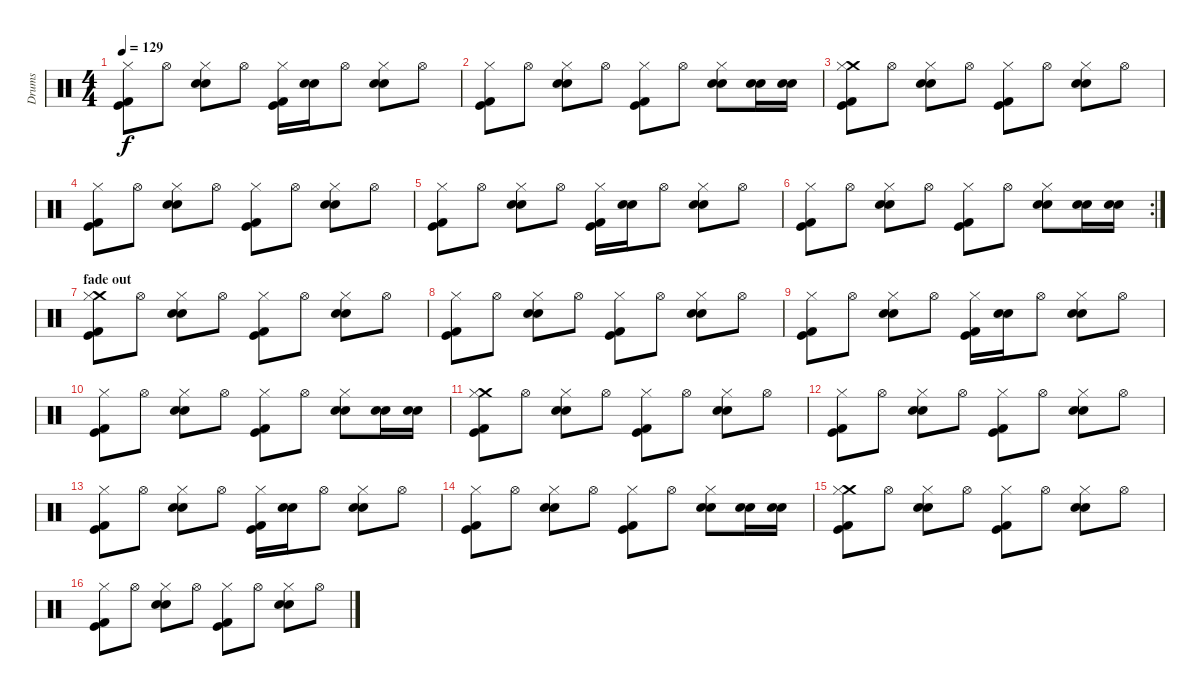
\track ("Drums" "Drums") {instrument percussion}
\staff {score}
\articulation defaults
\ts (4 4)
\tempo 129
\clef neutral
\ks c
("Hi-Hat (closed)" "Kick (hit) 2" "Kick (hit)").8{dy f} "Hi-Hat (open)".8 ("Hi-Hat (closed)" "Snare (hit) 2" "Snare (hit) 2").8 "Hi-Hat (open)".8 ("Hi-Hat (closed)" "Kick (hit) 2" "Kick (hit)").16 ("Snare (hit) 2" "Snare (hit) 2").16 "Hi-Hat (open)".8 ("Hi-Hat (closed)" "Snare (hit) 2" "Snare (hit) 2").8 "Hi-Hat (open)".8 |
("Hi-Hat (closed)" "Kick (hit) 2" "Kick (hit)").8 "Hi-Hat (open)".8 ("Hi-Hat (closed)" "Snare (hit) 2" "Snare (hit) 2").8 "Hi-Hat (open)".8 ("Hi-Hat (closed)" "Kick (hit) 2" "Kick (hit)").8 "Hi-Hat (open)".8 ("Hi-Hat (closed)" "Snare (hit) 2" "Snare (hit) 2").8 ("Snare (hit) 2" "Snare (hit) 2").16 ("Snare (hit) 2" "Snare (hit) 2").16 |
("Crash medium (hit)" "Hi-Hat (closed)" "Kick (hit) 2" "Kick (hit)").8 "Hi-Hat (open)".8 ("Hi-Hat (closed)" "Snare (hit) 2" "Snare (hit) 2").8 "Hi-Hat (open)".8 ("Hi-Hat (closed)" "Kick (hit) 2" "Kick (hit)").8 "Hi-Hat (open)".8 ("Hi-Hat (closed)" "Snare (hit) 2" "Snare (hit) 2").8 "Hi-Hat (open)".8 |
("Hi-Hat (closed)" "Kick (hit) 2" "Kick (hit)").8 "Hi-Hat (open)".8 ("Hi-Hat (closed)" "Snare (hit) 2" "Snare (hit) 2").8 "Hi-Hat (open)".8 ("Hi-Hat (closed)" "Kick (hit) 2" "Kick (hit)").8 "Hi-Hat (open)".8 ("Hi-Hat (closed)" "Snare (hit) 2" "Snare (hit) 2").8 "Hi-Hat (open)".8 |
("Hi-Hat (closed)" "Kick (hit) 2" "Kick (hit)").8 "Hi-Hat (open)".8 ("Hi-Hat (closed)" "Snare (hit) 2" "Snare (hit) 2").8 "Hi-Hat (open)".8 ("Hi-Hat (closed)" "Kick (hit) 2" "Kick (hit)").16 ("Snare (hit) 2" "Snare (hit) 2").16 "Hi-Hat (open)".8 ("Hi-Hat (closed)" "Snare (hit) 2" "Snare (hit) 2").8 "Hi-Hat (open)".8 |
\rc 2
("Hi-Hat (closed)" "Kick (hit) 2" "Kick (hit)").8 "Hi-Hat (open)".8 ("Hi-Hat (closed)" "Snare (hit) 2" "Snare (hit) 2").8 "Hi-Hat (open)".8 ("Hi-Hat (closed)" "Kick (hit) 2" "Kick (hit)").8 "Hi-Hat (open)".8 ("Hi-Hat (closed)" "Snare (hit) 2" "Snare (hit) 2").8 ("Snare (hit) 2" "Snare (hit) 2").16 ("Snare (hit) 2" "Snare (hit) 2").16 |
\section ("" "fade out")
("Crash medium (hit)" "Hi-Hat (closed)" "Kick (hit) 2" "Kick (hit)").8 "Hi-Hat (open)".8 ("Hi-Hat (closed)" "Snare (hit) 2" "Snare (hit) 2").8 "Hi-Hat (open)".8 ("Hi-Hat (closed)" "Kick (hit) 2" "Kick (hit)").8 "Hi-Hat (open)".8 ("Hi-Hat (closed)" "Snare (hit) 2" "Snare (hit) 2").8 "Hi-Hat (open)".8 |
("Hi-Hat (closed)" "Kick (hit) 2" "Kick (hit)").8 "Hi-Hat (open)".8 ("Hi-Hat (closed)" "Snare (hit) 2" "Snare (hit) 2").8 "Hi-Hat (open)".8 ("Hi-Hat (closed)" "Kick (hit) 2" "Kick (hit)").8 "Hi-Hat (open)".8 ("Hi-Hat (closed)" "Snare (hit) 2" "Snare (hit) 2").8 "Hi-Hat (open)".8 |
("Hi-Hat (closed)" "Kick (hit) 2" "Kick (hit)").8 "Hi-Hat (open)".8 ("Hi-Hat (closed)" "Snare (hit) 2" "Snare (hit) 2").8 "Hi-Hat (open)".8 ("Hi-Hat (closed)" "Kick (hit) 2" "Kick (hit)").16 ("Snare (hit) 2" "Snare (hit) 2").16 "Hi-Hat (open)".8 ("Hi-Hat (closed)" "Snare (hit) 2" "Snare (hit) 2").8 "Hi-Hat (open)".8 |
("Hi-Hat (closed)" "Kick (hit) 2" "Kick (hit)").8 "Hi-Hat (open)".8 ("Hi-Hat (closed)" "Snare (hit) 2" "Snare (hit) 2").8 "Hi-Hat (open)".8 ("Hi-Hat (closed)" "Kick (hit) 2" "Kick (hit)").8 "Hi-Hat (open)".8 ("Hi-Hat (closed)" "Snare (hit) 2" "Snare (hit) 2").8 ("Snare (hit) 2" "Snare (hit) 2").16 ("Snare (hit) 2" "Snare (hit) 2").16 |
("Crash medium (hit)" "Hi-Hat (closed)" "Kick (hit) 2" "Kick (hit)").8 "Hi-Hat (open)".8 ("Hi-Hat (closed)" "Snare (hit) 2" "Snare (hit) 2").8 "Hi-Hat (open)".8 ("Hi-Hat (closed)" "Kick (hit) 2" "Kick (hit)").8 "Hi-Hat (open)".8 ("Hi-Hat (closed)" "Snare (hit) 2" "Snare (hit) 2").8 "Hi-Hat (open)".8 |
("Hi-Hat (closed)" "Kick (hit) 2" "Kick (hit)").8 "Hi-Hat (open)".8 ("Hi-Hat (closed)" "Snare (hit) 2" "Snare (hit) 2").8 "Hi-Hat (open)".8 ("Hi-Hat (closed)" "Kick (hit) 2" "Kick (hit)").8 "Hi-Hat (open)".8 ("Hi-Hat (closed)" "Snare (hit) 2" "Snare (hit) 2").8 "Hi-Hat (open)".8 |
("Hi-Hat (closed)" "Kick (hit) 2" "Kick (hit)").8 "Hi-Hat (open)".8 ("Hi-Hat (closed)" "Snare (hit) 2" "Snare (hit) 2").8 "Hi-Hat (open)".8 ("Hi-Hat (closed)" "Kick (hit) 2" "Kick (hit)").16 ("Snare (hit) 2" "Snare (hit) 2").16 "Hi-Hat (open)".8 ("Hi-Hat (closed)" "Snare (hit) 2" "Snare (hit) 2").8 "Hi-Hat (open)".8 |
("Hi-Hat (closed)" "Kick (hit) 2" "Kick (hit)").8 "Hi-Hat (open)".8 ("Hi-Hat (closed)" "Snare (hit) 2" "Snare (hit) 2").8 "Hi-Hat (open)".8 ("Hi-Hat (closed)" "Kick (hit) 2" "Kick (hit)").8 "Hi-Hat (open)".8 ("Hi-Hat (closed)" "Snare (hit) 2" "Snare (hit) 2").8 ("Snare (hit) 2" "Snare (hit) 2").16 ("Snare (hit) 2" "Snare (hit) 2").16 |
("Crash medium (hit)" "Hi-Hat (closed)" "Kick (hit) 2" "Kick (hit)").8 "Hi-Hat (open)".8 ("Hi-Hat (closed)" "Snare (hit) 2" "Snare (hit) 2").8 "Hi-Hat (open)".8 ("Hi-Hat (closed)" "Kick (hit) 2" "Kick (hit)").8 "Hi-Hat (open)".8 ("Hi-Hat (closed)" "Snare (hit) 2" "Snare (hit) 2").8 "Hi-Hat (open)".8 |
("Hi-Hat (closed)" "Kick (hit) 2" "Kick (hit)").8 "Hi-Hat (open)".8 ("Hi-Hat (closed)" "Snare (hit) 2" "Snare (hit) 2").8 "Hi-Hat (open)".8 ("Hi-Hat (closed)" "Kick (hit) 2" "Kick (hit)").8 "Hi-Hat (open)".8 ("Hi-Hat (closed)" "Snare (hit) 2" "Snare (hit) 2").8 "Hi-Hat (open)".8
